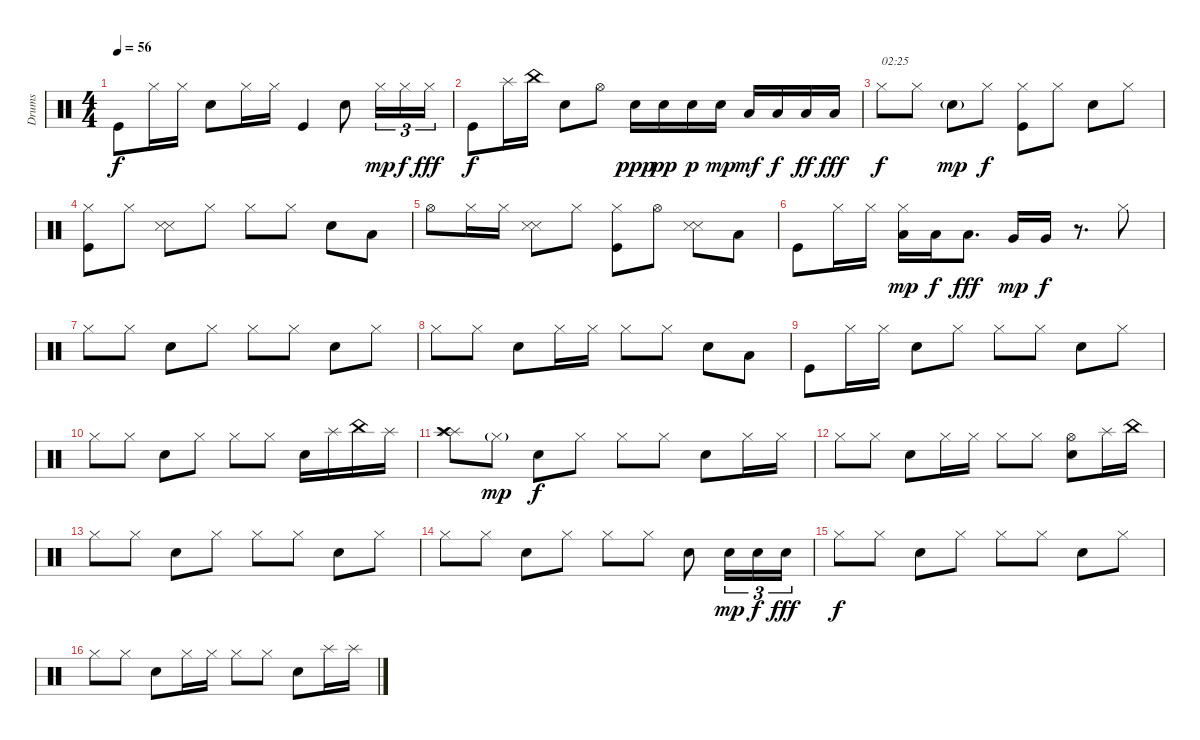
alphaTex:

\track ("Drums" "Drums") {instrument percussion}
\staff {score}
\articulation defaults
\ts (4 4)
\tempo 56
\clef neutral
\ks c "Kick (hit)".8{dy f} "Hi-Hat (closed)".16 "Hi-Hat (closed)".16 "Electric Snare (hit)".8 "Hi-Hat (closed)".16 "Hi-Hat (closed)".16 "Kick (hit)".4 "Electric Snare (hit)".8 "Hi-Hat (closed)".16{tu (3 2) dy mp} "Hi-Hat (closed)".16{tu (3 2) dy f} "Hi-Hat (closed)".16{tu (3 2) dy fff}
|
"Kick (hit)".8{dy f} "Splash (hit)".16 "China (hit)".16 "Electric Snare (hit)".8 "Hi-Hat (open)".8 "Electric Snare (hit)".16{dy ppp} "Electric Snare (hit)".16{dy pp} "Electric Snare (hit)".16{dy p} "Electric Snare (hit)".16{dy mp} "Low Tom (hit)".16{dy mf} "Low Tom (hit)".16{dy f} "Low Tom (hit)".16{dy ff} "Low Tom (hit)".16{dy fff} |
"Hi-Hat (closed)".8{txt "02:25" dy f} "Hi-Hat (closed)".8 "Electric Snare (hit)"{g}.8{dy mp} "Hi-Hat (closed)".8{dy f} ("Hi-Hat (closed)" "Kick (hit)").8 "Hi-Hat (closed)".8 "Electric Snare (hit)".8 "Hi-Hat (closed)".8 |
("Hi-Hat (closed)" "Kick (hit)").8 "Hi-Hat (closed)".8 ("Snare (side stick) 3" "Snare (side stick) 3").8{bd 30} "Hi-Hat (closed)".8 "Hi-Hat (closed)".8 "Hi-Hat (closed)".8 "Electric Snare (hit)".8 "Low Tom (hit)".8 |
"Hi-Hat (open)".8 "Hi-Hat (closed)".16 "Hi-Hat (closed)".16 ("Snare (side stick) 3" "Snare (side stick) 3").8{bd 30} "Hi-Hat (closed)".8 ("Hi-Hat (closed)" "Kick (hit)").8 "Hi-Hat (open)".8 ("Snare (side stick) 3" "Snare (side stick) 3").8{bd 30} "Low Tom (hit)".8 |
"Kick (hit)".8 "Hi-Hat (closed)".16 "Hi-Hat (closed)".16 ("Low Tom (hit)" "Hi-Hat (closed)").16{dy mp} "Low Tom (hit)".16{dy f} "Low Tom (hit)".8{d dy fff} "Very Low Tom (hit)".16{dy mp} "Very Low Tom (hit)".16{dy f} r.8{d} "Hi-Hat (closed)".8 |
"Hi-Hat (closed)".8 "Hi-Hat (closed)".8 "Electric Snare (hit)".8 "Hi-Hat (closed)".8 "Hi-Hat (closed)".8 "Hi-Hat (closed)".8 "Electric Snare (hit)".8 "Hi-Hat (closed)".8 |
"Hi-Hat (closed)".8 "Hi-Hat (closed)".8 "Electric Snare (hit)".8 "Hi-Hat (closed)".16 "Hi-Hat (closed)".16 "Hi-Hat (closed)".8 "Hi-Hat (closed)".8 "Electric Snare (hit)".8 "Low Tom (hit)".8 |
"Kick (hit)".8 "Hi-Hat (closed)".16 "Hi-Hat (closed)".16 "Electric Snare (hit)".8 "Hi-Hat (closed)".8 "Hi-Hat (closed)".8 "Hi-Hat (closed)".8 "Electric Snare (hit)".8 "Hi-Hat (closed)".8 |
"Hi-Hat (closed)".8 "Hi-Hat (closed)".8 "Electric Snare (hit)".8 "Hi-Hat (closed)".8 "Hi-Hat (closed)".8 "Hi-Hat (closed)".8 "Electric Snare (hit)".16 "Splash (hit)".16 "China (hit)".16 "Splash (hit)".16 |
("Splash (hit)" "Splash (hit)" "Crash high (hit)").8 "Hi-Hat (closed)"{g}.8{dy mp} "Electric Snare (hit)".8{dy f} "Hi-Hat (closed)".8 "Hi-Hat (closed)".8 "Hi-Hat (closed)".8 "Electric Snare (hit)".8 "Hi-Hat (closed)".16 "Hi-Hat (closed)".16 |
"Hi-Hat (closed)".8 "Hi-Hat (closed)".8 "Electric Snare (hit)".8 "Hi-Hat (closed)".16 "Hi-Hat (closed)".16 "Hi-Hat (closed)".8 "Hi-Hat (closed)".8 ("Hi-Hat (open)" "Electric Snare (hit)").8 "Splash (hit)".16 "China (hit)".16 |
"Hi-Hat (closed)".8 "Hi-Hat (closed)".8 "Electric Snare (hit)".8 "Hi-Hat (closed)".8 "Hi-Hat (closed)".8 "Hi-Hat (closed)".8 "Electric Snare (hit)".8 "Hi-Hat (closed)".8 |
"Hi-Hat (closed)".8 "Hi-Hat (closed)".8 "Electric Snare (hit)".8 "Hi-Hat (closed)".8 "Hi-Hat (closed)".8 "Hi-Hat (closed)".8 "Electric Snare (hit)".8 "Electric Snare (hit)".16{tu (3 2) dy mp} "Electric Snare (hit)".16{tu (3 2) dy f} "Electric Snare (hit)".16{tu (3 2) dy fff} |
"Hi-Hat (closed)".8{dy f} "Hi-Hat (closed)".8 "Electric Snare (hit)".8 "Hi-Hat (closed)".8 "Hi-Hat (closed)".8 "Hi-Hat (closed)".8 "Electric Snare (hit)".8 "Hi-Hat (closed)".8 |
"Hi-Hat (closed)".8 "Hi-Hat (closed)".8 "Electric Snare (hit)".8 "Hi-Hat (closed)".16 "Hi-Hat (closed)".16 "Hi-Hat (closed)".8 "Hi-Hat (closed)".8 "Electric Snare (hit)".8 "Splash (hit)".16 "Splash (hit)".16
